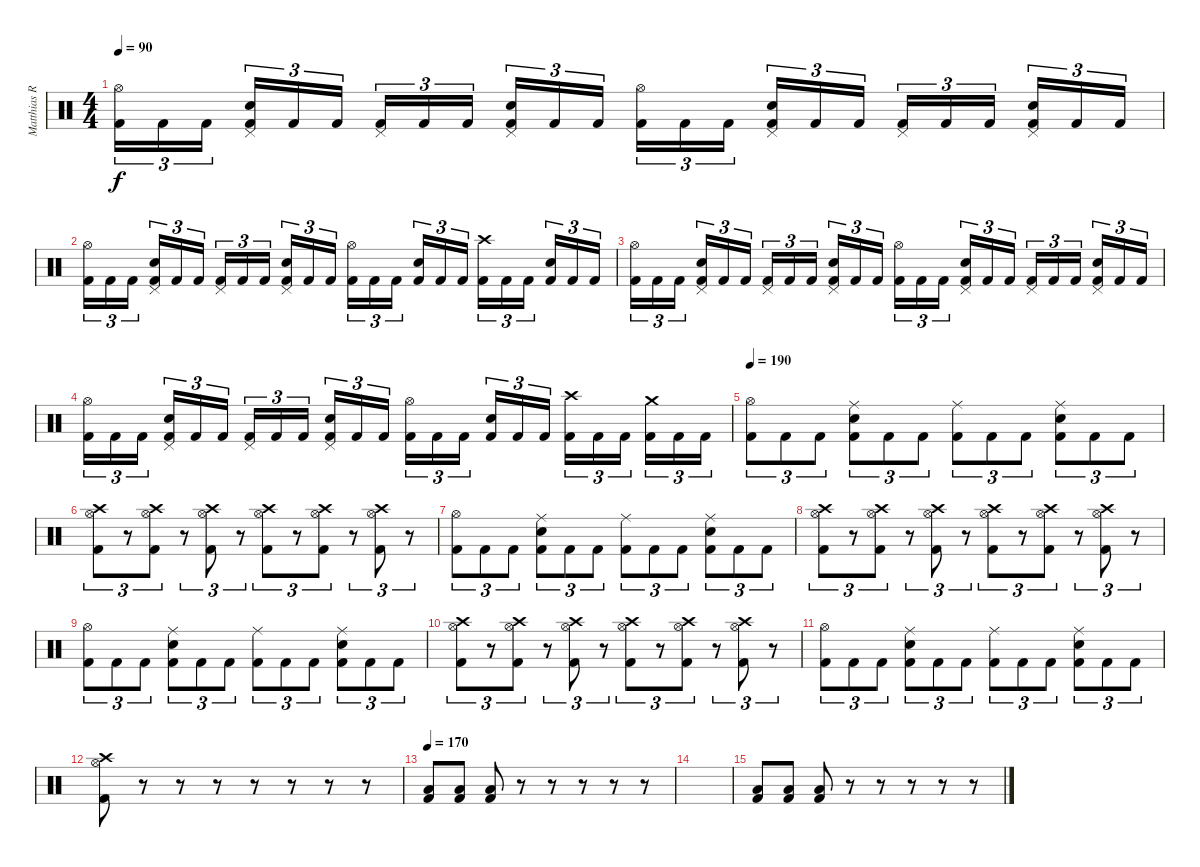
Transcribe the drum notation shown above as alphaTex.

\track ("Matthias R." "Matthias R") {instrument percussion}
\staff {score}
\articulation defaults
\ts (4 4)
\tempo 90
\clef neutral
\ks c
("Kick (hit) 2" "Hi-Hat (open)").16{tu (3 2) dy f} "Kick (hit) 2".16{tu (3 2)} "Kick (hit) 2".16{tu (3 2) beam splitsecondary} ("Kick (hit) 2" "Snare (hit) 2" "Pedal Hi-Hat (hit)").16{tu (3 2)} "Kick (hit) 2".16{tu (3 2)} "Kick (hit) 2".16{tu (3 2)} ("Kick (hit) 2" "Pedal Hi-Hat (hit)").16{tu (3 2)} "Kick (hit) 2".16{tu (3 2)} "Kick (hit) 2".16{tu (3 2) beam splitsecondary} ("Kick (hit) 2" "Snare (hit) 2" "Pedal Hi-Hat (hit)").16{tu (3 2)} "Kick (hit) 2".16{tu (3 2)} "Kick (hit) 2".16{tu (3 2)} ("Kick (hit) 2" "Hi-Hat (open)").16{tu (3 2)} "Kick (hit) 2".16{tu (3 2)} "Kick (hit) 2".16{tu (3 2) beam splitsecondary} ("Kick (hit) 2" "Snare (hit) 2" "Pedal Hi-Hat (hit)").16{tu (3 2)} "Kick (hit) 2".16{tu (3 2)} "Kick (hit) 2".16{tu (3 2)} ("Kick (hit) 2" "Pedal Hi-Hat (hit)").16{tu (3 2)} "Kick (hit) 2".16{tu (3 2)} "Kick (hit) 2".16{tu (3 2) beam splitsecondary} ("Kick (hit) 2" "Snare (hit) 2" "Pedal Hi-Hat (hit)").16{tu (3 2)} "Kick (hit) 2".16{tu (3 2)} "Kick (hit) 2".16{tu (3 2)} |
("Kick (hit) 2" "Hi-Hat (open)").16{tu (3 2)} "Kick (hit) 2".16{tu (3 2)} "Kick (hit) 2".16{tu (3 2) beam splitsecondary} ("Kick (hit) 2" "Snare (hit) 2" "Pedal Hi-Hat (hit)").16{tu (3 2)} "Kick (hit) 2".16{tu (3 2)} "Kick (hit) 2".16{tu (3 2)} ("Kick (hit) 2" "Pedal Hi-Hat (hit)").16{tu (3 2)} "Kick (hit) 2".16{tu (3 2)} "Kick (hit) 2".16{tu (3 2) beam splitsecondary} ("Kick (hit) 2" "Snare (hit) 2" "Pedal Hi-Hat (hit)").16{tu (3 2)} "Kick (hit) 2".16{tu (3 2)} "Kick (hit) 2".16{tu (3 2)} ("Kick (hit) 2" "Hi-Hat (open)").16{tu (3 2)} "Kick (hit) 2".16{tu (3 2)} "Kick (hit) 2".16{tu (3 2) beam splitsecondary} ("Kick (hit) 2" "Snare (hit) 2").16{tu (3 2)} "Kick (hit) 2".16{tu (3 2)} "Kick (hit) 2".16{tu (3 2)} ("Kick (hit) 2" "Crash high (hit)").16{tu (3 2)} "Kick (hit) 2".16{tu (3 2)} "Kick (hit) 2".16{tu (3 2) beam splitsecondary} ("Kick (hit) 2" "Snare (hit) 2").16{tu (3 2)} "Kick (hit) 2".16{tu (3 2)} "Kick (hit) 2".16{tu (3 2)} |
("Kick (hit) 2" "Hi-Hat (open)").16{tu (3 2)} "Kick (hit) 2".16{tu (3 2)} "Kick (hit) 2".16{tu (3 2) beam splitsecondary} ("Kick (hit) 2" "Snare (hit) 2" "Pedal Hi-Hat (hit)").16{tu (3 2)} "Kick (hit) 2".16{tu (3 2)} "Kick (hit) 2".16{tu (3 2)} ("Kick (hit) 2" "Pedal Hi-Hat (hit)").16{tu (3 2)} "Kick (hit) 2".16{tu (3 2)} "Kick (hit) 2".16{tu (3 2) beam splitsecondary} ("Kick (hit) 2" "Snare (hit) 2" "Pedal Hi-Hat (hit)").16{tu (3 2)} "Kick (hit) 2".16{tu (3 2)} "Kick (hit) 2".16{tu (3 2)} ("Kick (hit) 2" "Hi-Hat (open)").16{tu (3 2)} "Kick (hit) 2".16{tu (3 2)} "Kick (hit) 2".16{tu (3 2) beam splitsecondary} ("Kick (hit) 2" "Snare (hit) 2" "Pedal Hi-Hat (hit)").16{tu (3 2)} "Kick (hit) 2".16{tu (3 2)} "Kick (hit) 2".16{tu (3 2)} ("Kick (hit) 2" "Pedal Hi-Hat (hit)").16{tu (3 2)} "Kick (hit) 2".16{tu (3 2)} "Kick (hit) 2".16{tu (3 2) beam splitsecondary} ("Kick (hit) 2" "Snare (hit) 2" "Pedal Hi-Hat (hit)").16{tu (3 2)} "Kick (hit) 2".16{tu (3 2)} "Kick (hit) 2".16{tu (3 2)} |
("Kick (hit) 2" "Hi-Hat (open)").16{tu (3 2)} "Kick (hit) 2".16{tu (3 2)} "Kick (hit) 2".16{tu (3 2) beam splitsecondary} ("Kick (hit) 2" "Snare (hit) 2" "Pedal Hi-Hat (hit)").16{tu (3 2)} "Kick (hit) 2".16{tu (3 2)} "Kick (hit) 2".16{tu (3 2)} ("Kick (hit) 2" "Pedal Hi-Hat (hit)").16{tu (3 2)} "Kick (hit) 2".16{tu (3 2)} "Kick (hit) 2".16{tu (3 2) beam splitsecondary} ("Kick (hit) 2" "Snare (hit) 2" "Pedal Hi-Hat (hit)").16{tu (3 2)} "Kick (hit) 2".16{tu (3 2)} "Kick (hit) 2".16{tu (3 2)} ("Kick (hit) 2" "Hi-Hat (open)").16{tu (3 2)} "Kick (hit) 2".16{tu (3 2)} "Kick (hit) 2".16{tu (3 2) beam splitsecondary} ("Kick (hit) 2" "Snare (hit) 2").16{tu (3 2)} "Kick (hit) 2".16{tu (3 2)} "Kick (hit) 2".16{tu (3 2)} ("Kick (hit) 2" "Crash high (hit)").16{tu (3 2)} "Kick (hit) 2".16{tu (3 2)} "Kick (hit) 2".16{tu (3 2) beam splitsecondary} ("Kick (hit) 2" "Crash medium (hit)").16{tu (3 2)} "Kick (hit) 2".16{tu (3 2)} "Kick (hit) 2".16{tu (3 2)} |
\tempo 190
("Kick (hit) 2" "Hi-Hat (open)").8{tu (3 2)} "Kick (hit) 2".8{tu (3 2)} "Kick (hit) 2".8{tu (3 2)} ("Kick (hit) 2" "Snare (hit) 2" "Ride (middle)").8{tu (3 2)} "Kick (hit) 2".8{tu (3 2)} "Kick (hit) 2".8{tu (3 2)} ("Kick (hit) 2" "Ride (middle)").8{tu (3 2)} "Kick (hit) 2".8{tu (3 2)} "Kick (hit) 2".8{tu (3 2)} ("Kick (hit) 2" "Snare (hit) 2" "Ride (middle)").8{tu (3 2)} "Kick (hit) 2".8{tu (3 2)} "Kick (hit) 2".8{tu (3 2)} |
("Kick (hit) 2" "Hi-Hat (open)" "Crash high (hit)").8{tu (3 2)} r.8{tu (3 2)} ("Kick (hit) 2" "Hi-Hat (open)" "Crash high (hit)").8{tu (3 2)} r.8{tu (3 2)} ("Kick (hit) 2" "Hi-Hat (open)" "Crash high (hit)").8{tu (3 2)} r.8{tu (3 2)} ("Kick (hit) 2" "Hi-Hat (open)" "Crash high (hit)").8{tu (3 2)} r.8{tu (3 2)} ("Kick (hit) 2" "Hi-Hat (open)" "Crash high (hit)").8{tu (3 2)} r.8{tu (3 2)} ("Kick (hit) 2" "Hi-Hat (open)" "Crash high (hit)").8{tu (3 2)} r.8{tu (3 2)} |
("Kick (hit) 2" "Hi-Hat (open)").8{tu (3 2)} "Kick (hit) 2".8{tu (3 2)} "Kick (hit) 2".8{tu (3 2)} ("Kick (hit) 2" "Snare (hit) 2" "Ride (middle)").8{tu (3 2)} "Kick (hit) 2".8{tu (3 2)} "Kick (hit) 2".8{tu (3 2)} ("Kick (hit) 2" "Ride (middle)").8{tu (3 2)} "Kick (hit) 2".8{tu (3 2)} "Kick (hit) 2".8{tu (3 2)} ("Kick (hit) 2" "Snare (hit) 2" "Ride (middle)").8{tu (3 2)} "Kick (hit) 2".8{tu (3 2)} "Kick (hit) 2".8{tu (3 2)} |
("Kick (hit) 2" "Hi-Hat (open)" "Crash high (hit)").8{tu (3 2)} r.8{tu (3 2)} ("Kick (hit) 2" "Hi-Hat (open)" "Crash high (hit)").8{tu (3 2)} r.8{tu (3 2)} ("Kick (hit) 2" "Hi-Hat (open)" "Crash high (hit)").8{tu (3 2)} r.8{tu (3 2)} ("Kick (hit) 2" "Hi-Hat (open)" "Crash high (hit)").8{tu (3 2)} r.8{tu (3 2)} ("Kick (hit) 2" "Hi-Hat (open)" "Crash high (hit)").8{tu (3 2)} r.8{tu (3 2)} ("Kick (hit) 2" "Hi-Hat (open)" "Crash high (hit)").8{tu (3 2)} r.8{tu (3 2)} |
("Kick (hit) 2" "Hi-Hat (open)").8{tu (3 2)} "Kick (hit) 2".8{tu (3 2)} "Kick (hit) 2".8{tu (3 2)} ("Kick (hit) 2" "Snare (hit) 2" "Ride (middle)").8{tu (3 2)} "Kick (hit) 2".8{tu (3 2)} "Kick (hit) 2".8{tu (3 2)} ("Kick (hit) 2" "Ride (middle)").8{tu (3 2)} "Kick (hit) 2".8{tu (3 2)} "Kick (hit) 2".8{tu (3 2)} ("Kick (hit) 2" "Snare (hit) 2" "Ride (middle)").8{tu (3 2)} "Kick (hit) 2".8{tu (3 2)} "Kick (hit) 2".8{tu (3 2)} |
("Kick (hit) 2" "Hi-Hat (open)" "Crash high (hit)").8{tu (3 2)} r.8{tu (3 2)} ("Kick (hit) 2" "Hi-Hat (open)" "Crash high (hit)").8{tu (3 2)} r.8{tu (3 2)} ("Kick (hit) 2" "Hi-Hat (open)" "Crash high (hit)").8{tu (3 2)} r.8{tu (3 2)} ("Kick (hit) 2" "Hi-Hat (open)" "Crash high (hit)").8{tu (3 2)} r.8{tu (3 2)} ("Kick (hit) 2" "Hi-Hat (open)" "Crash high (hit)").8{tu (3 2)} r.8{tu (3 2)} ("Kick (hit) 2" "Hi-Hat (open)" "Crash high (hit)").8{tu (3 2)} r.8{tu (3 2)} |
("Kick (hit) 2" "Hi-Hat (open)").8{tu (3 2)} "Kick (hit) 2".8{tu (3 2)} "Kick (hit) 2".8{tu (3 2)} ("Kick (hit) 2" "Snare (hit) 2" "Ride (middle)").8{tu (3 2)} "Kick (hit) 2".8{tu (3 2)} "Kick (hit) 2".8{tu (3 2)} ("Kick (hit) 2" "Ride (middle)").8{tu (3 2)} "Kick (hit) 2".8{tu (3 2)} "Kick (hit) 2".8{tu (3 2)} ("Kick (hit) 2" "Snare (hit) 2" "Ride (middle)").8{tu (3 2)} "Kick (hit) 2".8{tu (3 2)} "Kick (hit) 2".8{tu (3 2)} |
("Kick (hit) 2" "Crash high (hit)" "Hi-Hat (open)").8 r.8 r.8 r.8 r.8 r.8 r.8 r.8 |
\tempo 170
("Kick (hit) 2" "Low Tom (hit)").8 ("Kick (hit) 2" "Low Tom (hit)").8 ("Kick (hit) 2" "Low Tom (hit)").8 r.8 r.8 r.8 r.8 r.8 |
|
("Kick (hit) 2" "Low Tom (hit)").8 ("Kick (hit) 2" "Low Tom (hit)").8 ("Kick (hit) 2" "Low Tom (hit)").8 r.8 r.8 r.8 r.8 r.8
